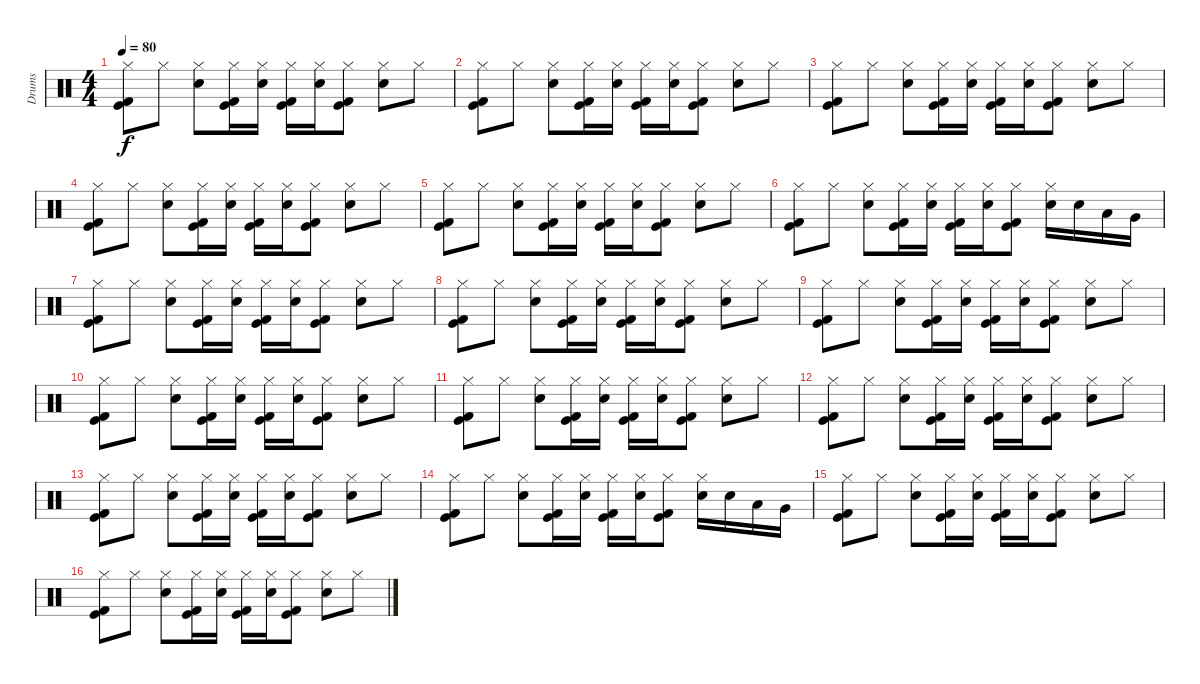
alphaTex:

\track ("Drums" "Drums") {instrument percussion}
\staff {score}
\articulation defaults
\ts (4 4)
\tempo 80
\clef neutral
\ks c
("Hi-Hat (closed)" "Kick (hit)" "Kick (hit) 2").8{dy f} "Hi-Hat (closed)".8 ("Hi-Hat (closed)" "Snare (hit) 2").8 ("Hi-Hat (closed)" "Kick (hit)" "Kick (hit) 2").16 ("Hi-Hat (closed)" "Snare (hit) 2").16 ("Hi-Hat (closed)" "Kick (hit)" "Kick (hit) 2").16 ("Hi-Hat (closed)" "Snare (hit) 2").16 ("Hi-Hat (closed)" "Kick (hit)" "Kick (hit) 2").8 ("Hi-Hat (closed)" "Snare (hit) 2").8 "Hi-Hat (closed)".8 |
("Hi-Hat (closed)" "Kick (hit)" "Kick (hit) 2").8 "Hi-Hat (closed)".8 ("Hi-Hat (closed)" "Snare (hit) 2").8 ("Hi-Hat (closed)" "Kick (hit)" "Kick (hit) 2").16 ("Hi-Hat (closed)" "Snare (hit) 2").16 ("Hi-Hat (closed)" "Kick (hit)" "Kick (hit) 2").16 ("Hi-Hat (closed)" "Snare (hit) 2").16 ("Hi-Hat (closed)" "Kick (hit)" "Kick (hit) 2").8 ("Hi-Hat (closed)" "Snare (hit) 2").8 "Hi-Hat (closed)".8 |
("Hi-Hat (closed)" "Kick (hit)" "Kick (hit) 2").8 "Hi-Hat (closed)".8 ("Hi-Hat (closed)" "Snare (hit) 2").8 ("Hi-Hat (closed)" "Kick (hit)" "Kick (hit) 2").16 ("Hi-Hat (closed)" "Snare (hit) 2").16 ("Hi-Hat (closed)" "Kick (hit)" "Kick (hit) 2").16 ("Hi-Hat (closed)" "Snare (hit) 2").16 ("Hi-Hat (closed)" "Kick (hit)" "Kick (hit) 2").8 ("Hi-Hat (closed)" "Snare (hit) 2").8 "Hi-Hat (closed)".8 |
("Hi-Hat (closed)" "Kick (hit)" "Kick (hit) 2").8 "Hi-Hat (closed)".8 ("Hi-Hat (closed)" "Snare (hit) 2").8 ("Hi-Hat (closed)" "Kick (hit)" "Kick (hit) 2").16 ("Hi-Hat (closed)" "Snare (hit) 2").16 ("Hi-Hat (closed)" "Kick (hit)" "Kick (hit) 2").16 ("Hi-Hat (closed)" "Snare (hit) 2").16 ("Hi-Hat (closed)" "Kick (hit)" "Kick (hit) 2").8 ("Hi-Hat (closed)" "Snare (hit) 2").8 "Hi-Hat (closed)".8 |
("Hi-Hat (closed)" "Kick (hit)" "Kick (hit) 2").8 "Hi-Hat (closed)".8 ("Hi-Hat (closed)" "Snare (hit) 2").8 ("Hi-Hat (closed)" "Kick (hit)" "Kick (hit) 2").16 ("Hi-Hat (closed)" "Snare (hit) 2").16 ("Hi-Hat (closed)" "Kick (hit)" "Kick (hit) 2").16 ("Hi-Hat (closed)" "Snare (hit) 2").16 ("Hi-Hat (closed)" "Kick (hit)" "Kick (hit) 2").8 ("Hi-Hat (closed)" "Snare (hit) 2").8 "Hi-Hat (closed)".8 |
("Hi-Hat (closed)" "Kick (hit)" "Kick (hit) 2").8 "Hi-Hat (closed)".8 ("Hi-Hat (closed)" "Snare (hit) 2").8 ("Hi-Hat (closed)" "Kick (hit)" "Kick (hit) 2").16 ("Hi-Hat (closed)" "Snare (hit) 2").16 ("Hi-Hat (closed)" "Kick (hit)" "Kick (hit) 2").16 ("Hi-Hat (closed)" "Snare (hit) 2").16 ("Hi-Hat (closed)" "Kick (hit)" "Kick (hit) 2").8 ("Hi-Hat (closed)" "Snare (hit) 2").16 "Snare (hit) 2".16 "Low Tom (hit)".16 "Very Low Tom (hit)".16 |
("Hi-Hat (closed)" "Kick (hit)" "Kick (hit) 2").8 "Hi-Hat (closed)".8 ("Hi-Hat (closed)" "Snare (hit) 2").8 ("Hi-Hat (closed)" "Kick (hit)" "Kick (hit) 2").16 ("Hi-Hat (closed)" "Snare (hit) 2").16 ("Hi-Hat (closed)" "Kick (hit)" "Kick (hit) 2").16 ("Hi-Hat (closed)" "Snare (hit) 2").16 ("Hi-Hat (closed)" "Kick (hit)" "Kick (hit) 2").8 ("Hi-Hat (closed)" "Snare (hit) 2").8 "Hi-Hat (closed)".8 |
("Hi-Hat (closed)" "Kick (hit)" "Kick (hit) 2").8 "Hi-Hat (closed)".8 ("Hi-Hat (closed)" "Snare (hit) 2").8 ("Hi-Hat (closed)" "Kick (hit)" "Kick (hit) 2").16 ("Hi-Hat (closed)" "Snare (hit) 2").16 ("Hi-Hat (closed)" "Kick (hit)" "Kick (hit) 2").16 ("Hi-Hat (closed)" "Snare (hit) 2").16 ("Hi-Hat (closed)" "Kick (hit)" "Kick (hit) 2").8 ("Hi-Hat (closed)" "Snare (hit) 2").8 "Hi-Hat (closed)".8 |
("Hi-Hat (closed)" "Kick (hit)" "Kick (hit) 2").8 "Hi-Hat (closed)".8 ("Hi-Hat (closed)" "Snare (hit) 2").8 ("Hi-Hat (closed)" "Kick (hit)" "Kick (hit) 2").16 ("Hi-Hat (closed)" "Snare (hit) 2").16 ("Hi-Hat (closed)" "Kick (hit)" "Kick (hit) 2").16 ("Hi-Hat (closed)" "Snare (hit) 2").16 ("Hi-Hat (closed)" "Kick (hit)" "Kick (hit) 2").8 ("Hi-Hat (closed)" "Snare (hit) 2").8 "Hi-Hat (closed)".8 |
("Hi-Hat (closed)" "Kick (hit)" "Kick (hit) 2").8 "Hi-Hat (closed)".8 ("Hi-Hat (closed)" "Snare (hit) 2").8 ("Hi-Hat (closed)" "Kick (hit)" "Kick (hit) 2").16 ("Hi-Hat (closed)" "Snare (hit) 2").16 ("Hi-Hat (closed)" "Kick (hit)" "Kick (hit) 2").16 ("Hi-Hat (closed)" "Snare (hit) 2").16 ("Hi-Hat (closed)" "Kick (hit)" "Kick (hit) 2").8 ("Hi-Hat (closed)" "Snare (hit) 2").8 "Hi-Hat (closed)".8 |
("Hi-Hat (closed)" "Kick (hit)" "Kick (hit) 2").8 "Hi-Hat (closed)".8 ("Hi-Hat (closed)" "Snare (hit) 2").8 ("Hi-Hat (closed)" "Kick (hit)" "Kick (hit) 2").16 ("Hi-Hat (closed)" "Snare (hit) 2").16 ("Hi-Hat (closed)" "Kick (hit)" "Kick (hit) 2").16 ("Hi-Hat (closed)" "Snare (hit) 2").16 ("Hi-Hat (closed)" "Kick (hit)" "Kick (hit) 2").8 ("Hi-Hat (closed)" "Snare (hit) 2").8 "Hi-Hat (closed)".8 |
("Hi-Hat (closed)" "Kick (hit)" "Kick (hit) 2").8 "Hi-Hat (closed)".8 ("Hi-Hat (closed)" "Snare (hit) 2").8 ("Hi-Hat (closed)" "Kick (hit)" "Kick (hit) 2").16 ("Hi-Hat (closed)" "Snare (hit) 2").16 ("Hi-Hat (closed)" "Kick (hit)" "Kick (hit) 2").16 ("Hi-Hat (closed)" "Snare (hit) 2").16 ("Hi-Hat (closed)" "Kick (hit)" "Kick (hit) 2").8 ("Hi-Hat (closed)" "Snare (hit) 2").8 "Hi-Hat (closed)".8 |
("Hi-Hat (closed)" "Kick (hit)" "Kick (hit) 2").8 "Hi-Hat (closed)".8 ("Hi-Hat (closed)" "Snare (hit) 2").8 ("Hi-Hat (closed)" "Kick (hit)" "Kick (hit) 2").16 ("Hi-Hat (closed)" "Snare (hit) 2").16 ("Hi-Hat (closed)" "Kick (hit)" "Kick (hit) 2").16 ("Hi-Hat (closed)" "Snare (hit) 2").16 ("Hi-Hat (closed)" "Kick (hit)" "Kick (hit) 2").8 ("Hi-Hat (closed)" "Snare (hit) 2").8 "Hi-Hat (closed)".8 |
("Hi-Hat (closed)" "Kick (hit)" "Kick (hit) 2").8 "Hi-Hat (closed)".8 ("Hi-Hat (closed)" "Snare (hit) 2").8 ("Hi-Hat (closed)" "Kick (hit)" "Kick (hit) 2").16 ("Hi-Hat (closed)" "Snare (hit) 2").16 ("Hi-Hat (closed)" "Kick (hit)" "Kick (hit) 2").16 ("Hi-Hat (closed)" "Snare (hit) 2").16 ("Hi-Hat (closed)" "Kick (hit)" "Kick (hit) 2").8 ("Hi-Hat (closed)" "Snare (hit) 2").16 "Snare (hit) 2".16 "Low Tom (hit)".16 "Very Low Tom (hit)".16 |
("Hi-Hat (closed)" "Kick (hit)" "Kick (hit) 2").8 "Hi-Hat (closed)".8 ("Hi-Hat (closed)" "Snare (hit) 2").8 ("Hi-Hat (closed)" "Kick (hit)" "Kick (hit) 2").16 ("Hi-Hat (closed)" "Snare (hit) 2").16 ("Hi-Hat (closed)" "Kick (hit)" "Kick (hit) 2").16 ("Hi-Hat (closed)" "Snare (hit) 2").16 ("Hi-Hat (closed)" "Kick (hit)" "Kick (hit) 2").8 ("Hi-Hat (closed)" "Snare (hit) 2").8 "Hi-Hat (closed)".8 |
("Hi-Hat (closed)" "Kick (hit)" "Kick (hit) 2").8 "Hi-Hat (closed)".8 ("Hi-Hat (closed)" "Snare (hit) 2").8 ("Hi-Hat (closed)" "Kick (hit)" "Kick (hit) 2").16 ("Hi-Hat (closed)" "Snare (hit) 2").16 ("Hi-Hat (closed)" "Kick (hit)" "Kick (hit) 2").16 ("Hi-Hat (closed)" "Snare (hit) 2").16 ("Hi-Hat (closed)" "Kick (hit)" "Kick (hit) 2").8 ("Hi-Hat (closed)" "Snare (hit) 2").8 "Hi-Hat (closed)".8
